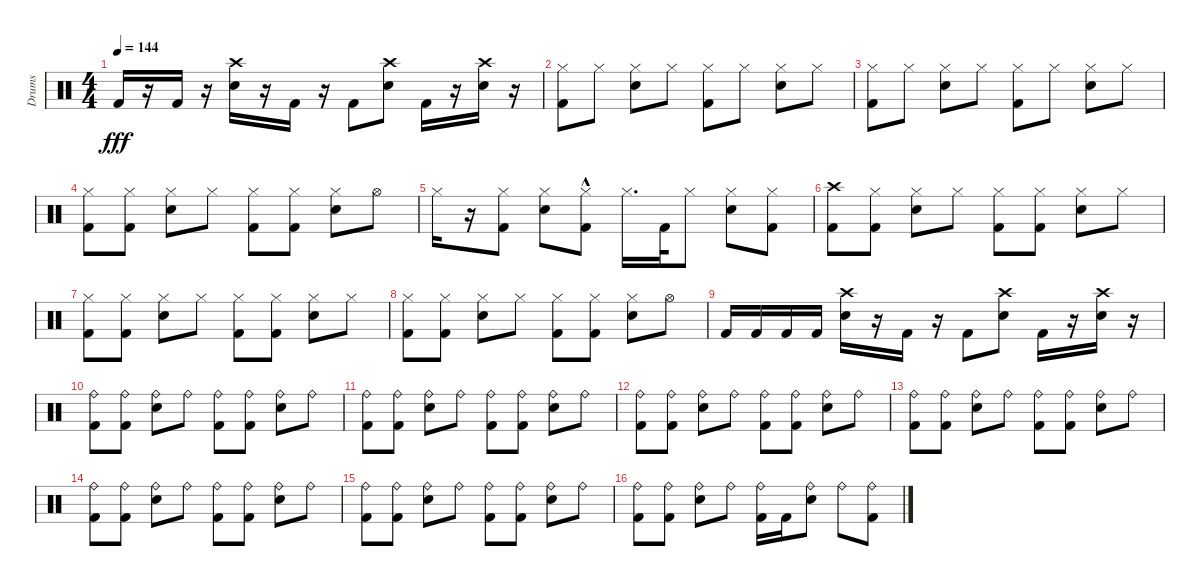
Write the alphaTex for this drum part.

\track ("Drums" "Drums") {instrument percussion}
\staff {score}
\articulation defaults
\ts (4 4)
\tempo 144
\clef neutral
\ks c "Kick (hit) 2".16{dy fff}
r.16 "Kick (hit) 2".16 r.16 ("Snare (hit) 2" "Crash high (hit)").16 r.16 "Kick (hit) 2".16 r.16 "Kick (hit) 2".8 ("Snare (hit) 2" "Crash high (hit)").8 "Kick (hit) 2".16 r.16 ("Snare (hit) 2" "Crash high (hit)").16 r.16 |
("Hi-Hat (closed)" "Kick (hit) 2").8 "Hi-Hat (closed)".8 ("Snare (hit) 2" "Hi-Hat (closed)").8 "Hi-Hat (closed)".8 ("Kick (hit) 2" "Hi-Hat (closed)").8 "Hi-Hat (closed)".8 ("Snare (hit) 2" "Hi-Hat (closed)").8 "Hi-Hat (closed)".8 |
("Kick (hit) 2" "Hi-Hat (closed)").8 "Hi-Hat (closed)".8 ("Snare (hit) 2" "Hi-Hat (closed)").8 "Hi-Hat (closed)".8 ("Kick (hit) 2" "Hi-Hat (closed)").8 "Hi-Hat (closed)".8 ("Snare (hit) 2" "Hi-Hat (closed)").8 "Hi-Hat (closed)".8 |
("Kick (hit) 2" "Hi-Hat (closed)").8 ("Kick (hit) 2" "Hi-Hat (closed)").8 ("Snare (hit) 2" "Hi-Hat (closed)").8 "Hi-Hat (closed)".8 ("Kick (hit) 2" "Hi-Hat (closed)").8 ("Kick (hit) 2" "Hi-Hat (closed)").8 ("Snare (hit) 2" "Hi-Hat (closed)").8 "Hi-Hat (open)".8 |
"Hi-Hat (closed)".16 r.16 ("Kick (hit) 2" "Hi-Hat (closed)").8 ("Snare (hit) 2" "Hi-Hat (closed)").8 ("Hi-Hat (closed)" "Kick (hit) 2"{hac}).8 "Hi-Hat (closed)".16{d} "Kick (hit) 2".32 "Hi-Hat (closed)".8 ("Snare (hit) 2" "Hi-Hat (closed)").8 ("Hi-Hat (closed)" "Kick (hit) 2").8 |
("Kick (hit) 2" "Crash high (hit)").8 ("Kick (hit) 2" "Hi-Hat (closed)").8 ("Snare (hit) 2" "Hi-Hat (closed)").8 "Hi-Hat (closed)".8 ("Kick (hit) 2" "Hi-Hat (closed)").8 ("Kick (hit) 2" "Hi-Hat (closed)").8 ("Snare (hit) 2" "Hi-Hat (closed)").8 "Hi-Hat (closed)".8 |
("Kick (hit) 2" "Hi-Hat (closed)").8 ("Kick (hit) 2" "Hi-Hat (closed)").8 ("Snare (hit) 2" "Hi-Hat (closed)").8 "Hi-Hat (closed)".8 ("Kick (hit) 2" "Hi-Hat (closed)").8 ("Kick (hit) 2" "Hi-Hat (closed)").8 ("Snare (hit) 2" "Hi-Hat (closed)").8 "Hi-Hat (closed)".8 |
("Hi-Hat (closed)" "Kick (hit) 2").8 ("Kick (hit) 2" "Hi-Hat (closed)").8 ("Snare (hit) 2" "Hi-Hat (closed)").8 "Hi-Hat (closed)".8 ("Kick (hit) 2" "Hi-Hat (closed)").8 ("Kick (hit) 2" "Hi-Hat (closed)").8 ("Snare (hit) 2" "Hi-Hat (closed)").8 "Hi-Hat (open)".8 |
"Kick (hit) 2".16 "Kick (hit) 2".16 "Kick (hit) 2".16 "Kick (hit) 2".16 ("Snare (hit) 2" "Crash high (hit)").16 r.16 "Kick (hit) 2".16 r.16 "Kick (hit) 2".8 ("Snare (hit) 2" "Crash high (hit)").8 "Kick (hit) 2".16 r.16 ("Snare (hit) 2" "Crash high (hit)").16 r.16 |
("Ride (bell)" "Kick (hit) 2").8 ("Kick (hit) 2" "Ride (bell)").8 ("Snare (hit) 2" "Ride (bell)").8 "Ride (bell)".8 ("Kick (hit) 2" "Ride (bell)").8 ("Kick (hit) 2" "Ride (bell)").8 ("Snare (hit) 2" "Ride (bell)").8 "Ride (bell)".8 |
("Ride (bell)" "Kick (hit) 2").8 ("Kick (hit) 2" "Ride (bell)").8 ("Snare (hit) 2" "Ride (bell)").8 "Ride (bell)".8 ("Kick (hit) 2" "Ride (bell)").8 ("Kick (hit) 2" "Ride (bell)").8 ("Snare (hit) 2" "Ride (bell)").8 "Ride (bell)".8 |
("Ride (bell)" "Kick (hit) 2").8 ("Kick (hit) 2" "Ride (bell)").8 ("Snare (hit) 2" "Ride (bell)").8 "Ride (bell)".8 ("Kick (hit) 2" "Ride (bell)").8 ("Kick (hit) 2" "Ride (bell)").8 ("Snare (hit) 2" "Ride (bell)").8 "Ride (bell)".8 |
("Ride (bell)" "Kick (hit) 2").8 ("Kick (hit) 2" "Ride (bell)").8 ("Snare (hit) 2" "Ride (bell)").8 "Ride (bell)".8 ("Kick (hit) 2" "Ride (bell)").8 ("Kick (hit) 2" "Ride (bell)").8 ("Snare (hit) 2" "Ride (bell)").8 "Ride (bell)".8 |
("Ride (bell)" "Kick (hit) 2").8 ("Kick (hit) 2" "Ride (bell)").8 ("Snare (hit) 2" "Ride (bell)").8 "Ride (bell)".8 ("Kick (hit) 2" "Ride (bell)").8 ("Kick (hit) 2" "Ride (bell)").8 ("Snare (hit) 2" "Ride (bell)").8 "Ride (bell)".8 |
("Kick (hit) 2" "Ride (bell)").8 ("Kick (hit) 2" "Ride (bell)").8 ("Snare (hit) 2" "Ride (bell)").8 "Ride (bell)".8 ("Kick (hit) 2" "Ride (bell)").8 ("Kick (hit) 2" "Ride (bell)").8 ("Snare (hit) 2" "Ride (bell)").8 "Ride (bell)".8 |
("Kick (hit) 2" "Ride (bell)").8 ("Kick (hit) 2" "Ride (bell)").8 ("Snare (hit) 2" "Ride (bell)").8 "Ride (bell)".8 ("Ride (bell)" "Kick (hit) 2").16 "Kick (hit) 2".16 ("Ride (bell)" "Snare (hit) 2").8 "Ride (bell)".8 ("Ride (bell)" "Kick (hit) 2").8
